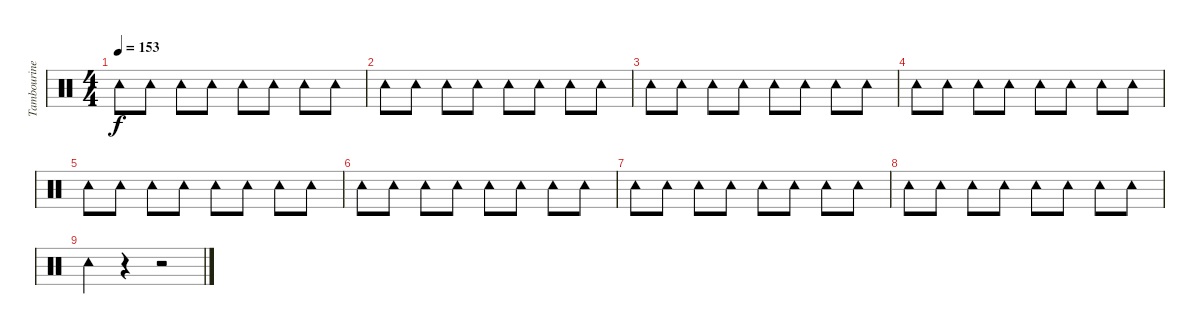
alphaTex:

\track ("Tambourine" "Tambourine") {instrument percussion}
\staff {score}
\articulation defaults
\ts (4 4)
\tempo 153
\clef neutral
\ks c "Tambourine (hit)".8{dy f} "Tambourine (hit)".8 "Tambourine (hit)".8 "Tambourine (hit)".8 "Tambourine (hit)".8 "Tambourine (hit)".8 "Tambourine (hit)".8 "Tambourine (hit)".8
|
"Tambourine (hit)".8 "Tambourine (hit)".8 "Tambourine (hit)".8 "Tambourine (hit)".8 "Tambourine (hit)".8 "Tambourine (hit)".8 "Tambourine (hit)".8 "Tambourine (hit)".8 |
"Tambourine (hit)".8 "Tambourine (hit)".8 "Tambourine (hit)".8 "Tambourine (hit)".8 "Tambourine (hit)".8 "Tambourine (hit)".8 "Tambourine (hit)".8 "Tambourine (hit)".8 |
"Tambourine (hit)".8 "Tambourine (hit)".8 "Tambourine (hit)".8 "Tambourine (hit)".8 "Tambourine (hit)".8 "Tambourine (hit)".8 "Tambourine (hit)".8 "Tambourine (hit)".8 |
"Tambourine (hit)".8 "Tambourine (hit)".8 "Tambourine (hit)".8 "Tambourine (hit)".8 "Tambourine (hit)".8 "Tambourine (hit)".8 "Tambourine (hit)".8 "Tambourine (hit)".8 |
"Tambourine (hit)".8 "Tambourine (hit)".8 "Tambourine (hit)".8 "Tambourine (hit)".8 "Tambourine (hit)".8 "Tambourine (hit)".8 "Tambourine (hit)".8 "Tambourine (hit)".8 |
"Tambourine (hit)".8 "Tambourine (hit)".8 "Tambourine (hit)".8 "Tambourine (hit)".8 "Tambourine (hit)".8 "Tambourine (hit)".8 "Tambourine (hit)".8 "Tambourine (hit)".8 |
"Tambourine (hit)".8 "Tambourine (hit)".8 "Tambourine (hit)".8 "Tambourine (hit)".8 "Tambourine (hit)".8 "Tambourine (hit)".8 "Tambourine (hit)".8 "Tambourine (hit)".8 |
"Tambourine (hit)".4 r.4 r.2
